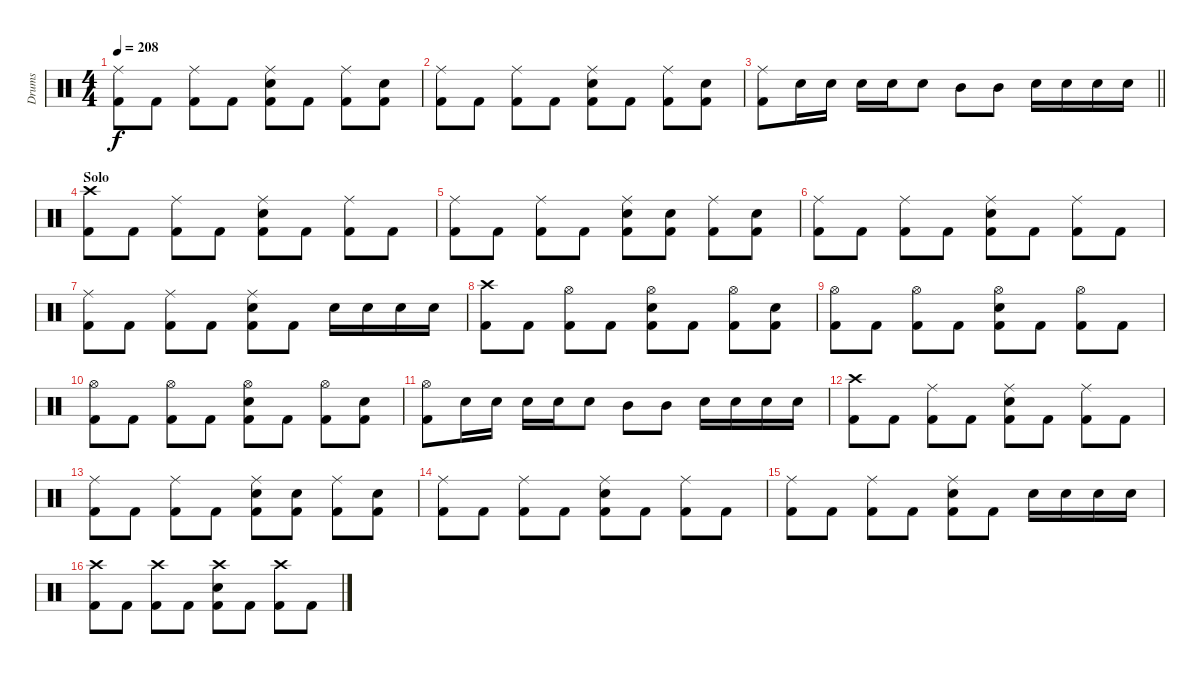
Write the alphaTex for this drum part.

\track ("Drums" "Drums") {instrument percussion}
\staff {score}
\articulation defaults
\ts (4 4)
\tempo 208
\clef neutral
\ks c
("Ride (middle)" "Kick (hit) 2").8{dy f} "Kick (hit) 2".8 ("Ride (middle)" "Kick (hit) 2").8 "Kick (hit) 2".8 ("Ride (middle)" "Snare (hit) 2" "Kick (hit) 2").8 "Kick (hit) 2".8 ("Ride (middle)" "Kick (hit) 2").8 ("Snare (hit) 2" "Kick (hit) 2").8 |
("Ride (middle)" "Kick (hit) 2").8 "Kick (hit) 2".8 ("Ride (middle)" "Kick (hit) 2").8 "Kick (hit) 2".8 ("Ride (middle)" "Snare (hit) 2" "Kick (hit) 2").8 "Kick (hit) 2".8 ("Ride (middle)" "Kick (hit) 2").8 ("Snare (hit) 2" "Kick (hit) 2").8 |
\barLineRight lightlight
("Ride (middle)" "Kick (hit) 2").8 "Snare (hit) 2".16 "Snare (hit) 2".16 "Snare (hit) 2".16 "Snare (hit) 2".16 "Snare (hit) 2".8 "Mid Tom (hit)".8 "Mid Tom (hit)".8 "Snare (hit) 2".16 "Snare (hit) 2".16 "Snare (hit) 2".16 "Snare (hit) 2".16 |
\section ("" "Solo")
("Crash high (hit)" "Kick (hit) 2").8 "Kick (hit) 2".8 ("Ride (middle)" "Kick (hit) 2").8 "Kick (hit) 2".8 ("Ride (middle)" "Snare (hit) 2" "Kick (hit) 2").8 "Kick (hit) 2".8 ("Ride (middle)" "Kick (hit) 2").8 "Kick (hit) 2".8 |
("Ride (middle)" "Kick (hit) 2").8 "Kick (hit) 2".8 ("Ride (middle)" "Kick (hit) 2").8 "Kick (hit) 2".8 ("Ride (middle)" "Snare (hit) 2" "Kick (hit) 2").8 ("Snare (hit) 2" "Kick (hit) 2").8 ("Ride (middle)" "Kick (hit) 2").8 ("Snare (hit) 2" "Kick (hit) 2").8 |
("Ride (middle)" "Kick (hit) 2").8 "Kick (hit) 2".8 ("Ride (middle)" "Kick (hit) 2").8 "Kick (hit) 2".8 ("Ride (middle)" "Snare (hit) 2" "Kick (hit) 2").8 "Kick (hit) 2".8 ("Ride (middle)" "Kick (hit) 2").8 "Kick (hit) 2".8 |
("Ride (middle)" "Kick (hit) 2").8 "Kick (hit) 2".8 ("Ride (middle)" "Kick (hit) 2").8 "Kick (hit) 2".8 ("Ride (middle)" "Snare (hit) 2" "Kick (hit) 2").8 "Kick (hit) 2".8 "Snare (hit) 2".16 "Snare (hit) 2".16 "Snare (hit) 2".16 "Snare (hit) 2".16 |
("Crash high (hit)" "Kick (hit) 2").8 "Kick (hit) 2".8 ("Hi-Hat (open)" "Kick (hit) 2").8 "Kick (hit) 2".8 ("Hi-Hat (open)" "Snare (hit) 2" "Kick (hit) 2").8 "Kick (hit) 2".8 ("Hi-Hat (open)" "Kick (hit) 2").8 ("Snare (hit) 2" "Kick (hit) 2").8 |
("Hi-Hat (open)" "Kick (hit) 2").8 "Kick (hit) 2".8 ("Hi-Hat (open)" "Kick (hit) 2").8 "Kick (hit) 2".8 ("Hi-Hat (open)" "Snare (hit) 2" "Kick (hit) 2").8 "Kick (hit) 2".8 ("Hi-Hat (open)" "Kick (hit) 2").8 "Kick (hit) 2".8 |
("Hi-Hat (open)" "Kick (hit) 2").8 "Kick (hit) 2".8 ("Hi-Hat (open)" "Kick (hit) 2").8 "Kick (hit) 2".8 ("Hi-Hat (open)" "Snare (hit) 2" "Kick (hit) 2").8 "Kick (hit) 2".8 ("Hi-Hat (open)" "Kick (hit) 2").8 ("Snare (hit) 2" "Kick (hit) 2").8 |
("Hi-Hat (open)" "Kick (hit) 2").8 "Snare (hit) 2".16 "Snare (hit) 2".16 "Snare (hit) 2".16 "Snare (hit) 2".16 "Snare (hit) 2".8 "Mid Tom (hit)".8 "Mid Tom (hit)".8 "Snare (hit) 2".16 "Snare (hit) 2".16 "Snare (hit) 2".16 "Snare (hit) 2".16 |
("Crash high (hit)" "Kick (hit) 2").8 "Kick (hit) 2".8 ("Ride (middle)" "Kick (hit) 2").8 "Kick (hit) 2".8 ("Ride (middle)" "Snare (hit) 2" "Kick (hit) 2").8 "Kick (hit) 2".8 ("Ride (middle)" "Kick (hit) 2").8 "Kick (hit) 2".8 |
("Ride (middle)" "Kick (hit) 2").8 "Kick (hit) 2".8 ("Ride (middle)" "Kick (hit) 2").8 "Kick (hit) 2".8 ("Ride (middle)" "Snare (hit) 2" "Kick (hit) 2").8 ("Snare (hit) 2" "Kick (hit) 2").8 ("Ride (middle)" "Kick (hit) 2").8 ("Snare (hit) 2" "Kick (hit) 2").8 |
("Ride (middle)" "Kick (hit) 2").8 "Kick (hit) 2".8 ("Ride (middle)" "Kick (hit) 2").8 "Kick (hit) 2".8 ("Ride (middle)" "Snare (hit) 2" "Kick (hit) 2").8 "Kick (hit) 2".8 ("Ride (middle)" "Kick (hit) 2").8 "Kick (hit) 2".8 |
("Ride (middle)" "Kick (hit) 2").8 "Kick (hit) 2".8 ("Ride (middle)" "Kick (hit) 2").8 "Kick (hit) 2".8 ("Ride (middle)" "Snare (hit) 2" "Kick (hit) 2").8 "Kick (hit) 2".8 "Snare (hit) 2".16 "Snare (hit) 2".16 "Snare (hit) 2".16 "Snare (hit) 2".16 |
("Crash high (hit)" "Kick (hit) 2").8 "Kick (hit) 2".8 ("Crash high (hit)" "Kick (hit) 2").8 "Kick (hit) 2".8 ("Crash high (hit)" "Snare (hit) 2" "Kick (hit) 2").8 "Kick (hit) 2".8 ("Crash high (hit)" "Kick (hit) 2").8 "Kick (hit) 2".8
